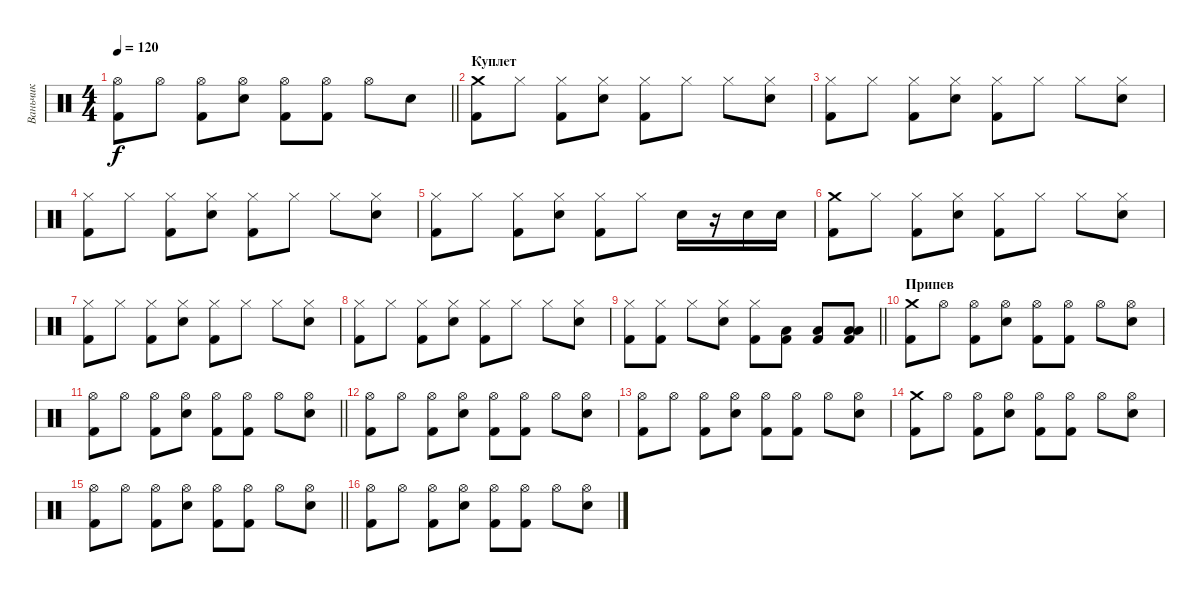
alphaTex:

\track ("Ваньчик" "Ваньчик") {instrument percussion}
\staff {score}
\articulation defaults
\ts (4 4)
\tempo 120
\clef neutral
\barLineRight lightlight
\ks c
("Hi-Hat (open)" "Kick (hit) 2").8{dy f} "Hi-Hat (open)".8 ("Hi-Hat (open)" "Kick (hit) 2").8 ("Hi-Hat (open)" "Snare (hit) 2").8 ("Hi-Hat (open)" "Kick (hit) 2").8 ("Hi-Hat (open)" "Kick (hit) 2").8 "Hi-Hat (open)".8 "Snare (hit) 2".8 |
\section ("" "Куплет ")
("Crash medium (hit)" "Kick (hit) 2").8 "Hi-Hat (closed)".8 ("Hi-Hat (closed)" "Kick (hit) 2").8 ("Hi-Hat (closed)" "Snare (hit) 2").8 ("Hi-Hat (closed)" "Kick (hit) 2").8 "Hi-Hat (closed)".8 "Hi-Hat (closed)".8 ("Hi-Hat (closed)" "Snare (hit) 2").8 |
("Hi-Hat (closed)" "Kick (hit) 2").8 "Hi-Hat (closed)".8 ("Hi-Hat (closed)" "Kick (hit) 2").8 ("Hi-Hat (closed)" "Snare (hit) 2").8 ("Hi-Hat (closed)" "Kick (hit) 2").8 "Hi-Hat (closed)".8 "Hi-Hat (closed)".8 ("Hi-Hat (closed)" "Snare (hit) 2").8 |
("Hi-Hat (closed)" "Kick (hit) 2").8 "Hi-Hat (closed)".8 ("Hi-Hat (closed)" "Kick (hit) 2").8 ("Hi-Hat (closed)" "Snare (hit) 2").8 ("Hi-Hat (closed)" "Kick (hit) 2").8 "Hi-Hat (closed)".8 "Hi-Hat (closed)".8 ("Hi-Hat (closed)" "Snare (hit) 2").8 |
("Hi-Hat (closed)" "Kick (hit) 2").8 "Hi-Hat (closed)".8 ("Hi-Hat (closed)" "Kick (hit) 2").8 ("Hi-Hat (closed)" "Snare (hit) 2").8 ("Hi-Hat (closed)" "Kick (hit) 2").8 "Hi-Hat (closed)".8 "Snare (hit) 2".16 r.16 "Snare (hit) 2".16 "Snare (hit) 2".16 |
("Crash medium (hit)" "Kick (hit) 2").8 "Hi-Hat (closed)".8 ("Hi-Hat (closed)" "Kick (hit) 2").8 ("Hi-Hat (closed)" "Snare (hit) 2").8 ("Hi-Hat (closed)" "Kick (hit) 2").8 "Hi-Hat (closed)".8 "Hi-Hat (closed)".8 ("Hi-Hat (closed)" "Snare (hit) 2").8 |
("Hi-Hat (closed)" "Kick (hit) 2").8 "Hi-Hat (closed)".8 ("Hi-Hat (closed)" "Kick (hit) 2").8 ("Hi-Hat (closed)" "Snare (hit) 2").8 ("Hi-Hat (closed)" "Kick (hit) 2").8 "Hi-Hat (closed)".8 "Hi-Hat (closed)".8 ("Hi-Hat (closed)" "Snare (hit) 2").8 |
("Hi-Hat (closed)" "Kick (hit) 2").8 "Hi-Hat (closed)".8 ("Hi-Hat (closed)" "Kick (hit) 2").8 ("Hi-Hat (closed)" "Snare (hit) 2").8 ("Hi-Hat (closed)" "Kick (hit) 2").8 "Hi-Hat (closed)".8 "Hi-Hat (closed)".8 ("Hi-Hat (closed)" "Snare (hit) 2").8 |
\barLineRight lightlight
("Hi-Hat (closed)" "Kick (hit) 2").8 ("Hi-Hat (closed)" "Kick (hit) 2").8 "Hi-Hat (closed)".8 ("Hi-Hat (closed)" "Snare (hit) 2").8 ("Hi-Hat (closed)" "Kick (hit) 2").8 ("Low Floor Tom (hit)" "Kick (hit) 2").8 ("Low Floor Tom (hit)" "Kick (hit) 2").8 ("Low Tom (hit)" "Low Floor Tom (hit)" "Kick (hit) 2").8 |
\section ("" "Припев")
("Crash medium (hit)" "Kick (hit) 2").8 "Hi-Hat (open)".8 ("Hi-Hat (open)" "Kick (hit) 2").8 ("Hi-Hat (open)" "Snare (hit) 2").8 ("Hi-Hat (open)" "Kick (hit) 2").8 ("Hi-Hat (open)" "Kick (hit) 2").8 "Hi-Hat (open)".8 ("Hi-Hat (open)" "Snare (hit) 2").8 |
\barLineRight lightlight
("Hi-Hat (open)" "Kick (hit) 2").8 "Hi-Hat (open)".8 ("Hi-Hat (open)" "Kick (hit) 2").8 ("Hi-Hat (open)" "Snare (hit) 2").8 ("Hi-Hat (open)" "Kick (hit) 2").8 ("Hi-Hat (open)" "Kick (hit) 2").8 "Hi-Hat (open)".8 ("Hi-Hat (open)" "Snare (hit) 2").8 |
("Hi-Hat (open)" "Kick (hit) 2").8 "Hi-Hat (open)".8 ("Hi-Hat (open)" "Kick (hit) 2").8 ("Hi-Hat (open)" "Snare (hit) 2").8 ("Hi-Hat (open)" "Kick (hit) 2").8 ("Hi-Hat (open)" "Kick (hit) 2").8 "Hi-Hat (open)".8 ("Hi-Hat (open)" "Snare (hit) 2").8 |
("Hi-Hat (open)" "Kick (hit) 2").8 "Hi-Hat (open)".8 ("Hi-Hat (open)" "Kick (hit) 2").8 ("Hi-Hat (open)" "Snare (hit) 2").8 ("Hi-Hat (open)" "Kick (hit) 2").8 ("Hi-Hat (open)" "Kick (hit) 2").8 "Hi-Hat (open)".8 ("Hi-Hat (open)" "Snare (hit) 2").8 |
("Crash medium (hit)" "Kick (hit) 2").8 "Hi-Hat (open)".8 ("Hi-Hat (open)" "Kick (hit) 2").8 ("Hi-Hat (open)" "Snare (hit) 2").8 ("Hi-Hat (open)" "Kick (hit) 2").8 ("Hi-Hat (open)" "Kick (hit) 2").8 "Hi-Hat (open)".8 ("Hi-Hat (open)" "Snare (hit) 2").8 |
\barLineRight lightlight
("Hi-Hat (open)" "Kick (hit) 2").8 "Hi-Hat (open)".8 ("Hi-Hat (open)" "Kick (hit) 2").8 ("Hi-Hat (open)" "Snare (hit) 2").8 ("Hi-Hat (open)" "Kick (hit) 2").8 ("Hi-Hat (open)" "Kick (hit) 2").8 "Hi-Hat (open)".8 ("Hi-Hat (open)" "Snare (hit) 2").8 |
("Hi-Hat (open)" "Kick (hit) 2").8 "Hi-Hat (open)".8 ("Hi-Hat (open)" "Kick (hit) 2").8 ("Hi-Hat (open)" "Snare (hit) 2").8 ("Hi-Hat (open)" "Kick (hit) 2").8 ("Hi-Hat (open)" "Kick (hit) 2").8 "Hi-Hat (open)".8 ("Hi-Hat (open)" "Snare (hit) 2").8
